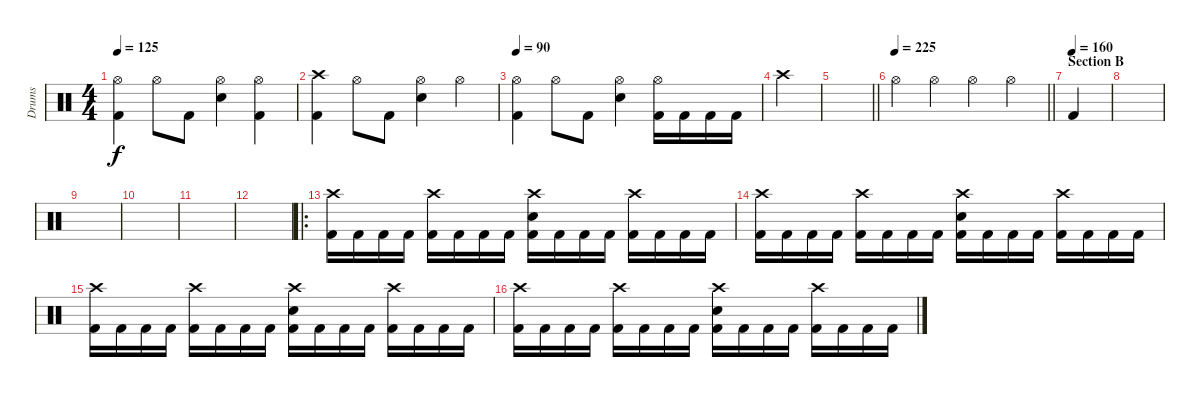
\track ("Drums" "Drums") {instrument percussion}
\staff {score}
\articulation defaults
\ts (4 4)
\tempo 125
\clef neutral
\ks c
("Hi-Hat (open)" "Kick (hit) 2").4{dy f} "Hi-Hat (open)".8 "Kick (hit) 2".8 ("Hi-Hat (open)" "Snare (hit) 2").4 ("Hi-Hat (open)" "Kick (hit) 2").4 |
("Crash high (hit)" "Kick (hit) 2").4 "Hi-Hat (open)".8 "Kick (hit) 2".8 ("Hi-Hat (open)" "Snare (hit) 2").4 "Hi-Hat (open)".4 |
\tempo 90
("Hi-Hat (open)" "Kick (hit) 2").4 "Hi-Hat (open)".8 "Kick (hit) 2".8 ("Hi-Hat (open)" "Snare (hit) 2").4 ("Hi-Hat (open)" "Kick (hit) 2").16 "Kick (hit) 2".16 "Kick (hit) 2".16 "Kick (hit) 2".16 |
"Crash high (hit)".4 |
\barLineRight lightlight
|
\section ("" "")
\tempo 225
\barLineRight lightlight "Hi-Hat (open)".4 "Hi-Hat (open)".4 "Hi-Hat (open)".4 "Hi-Hat (open)".4
|
\section ("" "Section B")
\tempo (160)
"Kick (hit) 2".4 |
|
|
|
|
|
\ro
("Crash high (hit)" "Kick (hit) 2").16 "Kick (hit) 2".16 "Kick (hit) 2".16 "Kick (hit) 2".16 ("Crash high (hit)" "Kick (hit) 2").16 "Kick (hit) 2".16 "Kick (hit) 2".16 "Kick (hit) 2".16 ("Crash high (hit)" "Snare (hit) 2" "Kick (hit) 2").16 "Kick (hit) 2".16 "Kick (hit) 2".16 "Kick (hit) 2".16 ("Crash high (hit)" "Kick (hit) 2").16 "Kick (hit) 2".16 "Kick (hit) 2".16 "Kick (hit) 2".16 |
("Crash high (hit)" "Kick (hit) 2").16 "Kick (hit) 2".16 "Kick (hit) 2".16 "Kick (hit) 2".16 ("Crash high (hit)" "Kick (hit) 2").16 "Kick (hit) 2".16 "Kick (hit) 2".16 "Kick (hit) 2".16 ("Crash high (hit)" "Snare (hit) 2" "Kick (hit) 2").16 "Kick (hit) 2".16 "Kick (hit) 2".16 "Kick (hit) 2".16 ("Crash high (hit)" "Kick (hit) 2").16 "Kick (hit) 2".16 "Kick (hit) 2".16 "Kick (hit) 2".16 |
("Crash high (hit)" "Kick (hit) 2").16 "Kick (hit) 2".16 "Kick (hit) 2".16 "Kick (hit) 2".16 ("Crash high (hit)" "Kick (hit) 2").16 "Kick (hit) 2".16 "Kick (hit) 2".16 "Kick (hit) 2".16 ("Crash high (hit)" "Snare (hit) 2" "Kick (hit) 2").16 "Kick (hit) 2".16 "Kick (hit) 2".16 "Kick (hit) 2".16 ("Crash high (hit)" "Kick (hit) 2").16 "Kick (hit) 2".16 "Kick (hit) 2".16 "Kick (hit) 2".16 |
("Crash high (hit)" "Kick (hit) 2").16 "Kick (hit) 2".16 "Kick (hit) 2".16 "Kick (hit) 2".16 ("Crash high (hit)" "Kick (hit) 2").16 "Kick (hit) 2".16 "Kick (hit) 2".16 "Kick (hit) 2".16 ("Crash high (hit)" "Snare (hit) 2" "Kick (hit) 2").16 "Kick (hit) 2".16 "Kick (hit) 2".16 "Kick (hit) 2".16 ("Crash high (hit)" "Kick (hit) 2").16 "Kick (hit) 2".16 "Kick (hit) 2".16 "Kick (hit) 2".16
